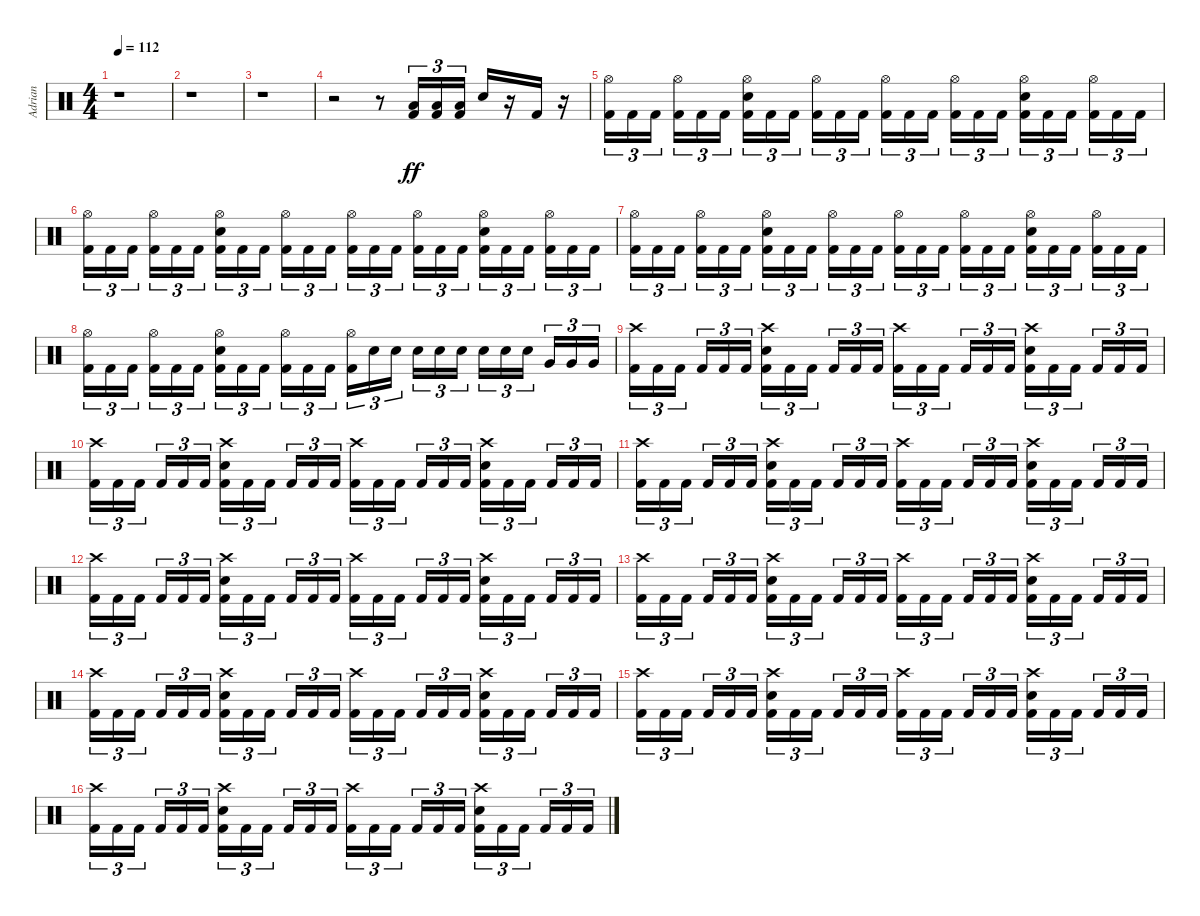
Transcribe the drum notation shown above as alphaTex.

\track ("Adrian" "Adrian") {instrument percussion}
\staff {score}
\articulation defaults
\ts (4 4)
\tempo 112
\clef neutral
\ks c
r.1{dy ff} |
r.1 |
r.1 |
r.2 r.8 ("Low Floor Tom (hit)" "Kick (hit) 2").16{tu (3 2)} ("Low Floor Tom (hit)" "Kick (hit) 2").16{tu (3 2)} ("Low Floor Tom (hit)" "Kick (hit) 2").16{tu (3 2)} "Electric Snare (hit)".16 r.16 "Kick (hit) 2".16 r.16 |
("Hi-Hat (open)" "Kick (hit) 2").16{tu (3 2)} "Kick (hit) 2".16{tu (3 2)} "Kick (hit) 2".16{tu (3 2) beam splitsecondary} ("Hi-Hat (open)" "Kick (hit) 2").16{tu (3 2)} "Kick (hit) 2".16{tu (3 2)} "Kick (hit) 2".16{tu (3 2)} ("Hi-Hat (open)" "Electric Snare (hit)" "Kick (hit) 2").16{tu (3 2)} "Kick (hit) 2".16{tu (3 2)} "Kick (hit) 2".16{tu (3 2) beam splitsecondary} ("Hi-Hat (open)" "Kick (hit) 2").16{tu (3 2)} "Kick (hit) 2".16{tu (3 2)} "Kick (hit) 2".16{tu (3 2)} ("Hi-Hat (open)" "Kick (hit) 2").16{tu (3 2)} "Kick (hit) 2".16{tu (3 2)} "Kick (hit) 2".16{tu (3 2) beam splitsecondary} ("Hi-Hat (open)" "Kick (hit) 2").16{tu (3 2)} "Kick (hit) 2".16{tu (3 2)} "Kick (hit) 2".16{tu (3 2)} ("Hi-Hat (open)" "Electric Snare (hit)" "Kick (hit) 2").16{tu (3 2)} "Kick (hit) 2".16{tu (3 2)} "Kick (hit) 2".16{tu (3 2) beam splitsecondary} ("Hi-Hat (open)" "Kick (hit) 2").16{tu (3 2)} "Kick (hit) 2".16{tu (3 2)} "Kick (hit) 2".16{tu (3 2)} |
("Hi-Hat (open)" "Kick (hit) 2").16{tu (3 2)} "Kick (hit) 2".16{tu (3 2)} "Kick (hit) 2".16{tu (3 2) beam splitsecondary} ("Hi-Hat (open)" "Kick (hit) 2").16{tu (3 2)} "Kick (hit) 2".16{tu (3 2)} "Kick (hit) 2".16{tu (3 2)} ("Hi-Hat (open)" "Electric Snare (hit)" "Kick (hit) 2").16{tu (3 2)} "Kick (hit) 2".16{tu (3 2)} "Kick (hit) 2".16{tu (3 2) beam splitsecondary} ("Hi-Hat (open)" "Kick (hit) 2").16{tu (3 2)} "Kick (hit) 2".16{tu (3 2)} "Kick (hit) 2".16{tu (3 2)} ("Hi-Hat (open)" "Kick (hit) 2").16{tu (3 2)} "Kick (hit) 2".16{tu (3 2)} "Kick (hit) 2".16{tu (3 2) beam splitsecondary} ("Hi-Hat (open)" "Kick (hit) 2").16{tu (3 2)} "Kick (hit) 2".16{tu (3 2)} "Kick (hit) 2".16{tu (3 2)} ("Hi-Hat (open)" "Electric Snare (hit)" "Kick (hit) 2").16{tu (3 2)} "Kick (hit) 2".16{tu (3 2)} "Kick (hit) 2".16{tu (3 2) beam splitsecondary} ("Hi-Hat (open)" "Kick (hit) 2").16{tu (3 2)} "Kick (hit) 2".16{tu (3 2)} "Kick (hit) 2".16{tu (3 2)} |
("Hi-Hat (open)" "Kick (hit) 2").16{tu (3 2)} "Kick (hit) 2".16{tu (3 2)} "Kick (hit) 2".16{tu (3 2) beam splitsecondary} ("Hi-Hat (open)" "Kick (hit) 2").16{tu (3 2)} "Kick (hit) 2".16{tu (3 2)} "Kick (hit) 2".16{tu (3 2)} ("Hi-Hat (open)" "Electric Snare (hit)" "Kick (hit) 2").16{tu (3 2)} "Kick (hit) 2".16{tu (3 2)} "Kick (hit) 2".16{tu (3 2) beam splitsecondary} ("Hi-Hat (open)" "Kick (hit) 2").16{tu (3 2)} "Kick (hit) 2".16{tu (3 2)} "Kick (hit) 2".16{tu (3 2)} ("Hi-Hat (open)" "Kick (hit) 2").16{tu (3 2)} "Kick (hit) 2".16{tu (3 2)} "Kick (hit) 2".16{tu (3 2) beam splitsecondary} ("Hi-Hat (open)" "Kick (hit) 2").16{tu (3 2)} "Kick (hit) 2".16{tu (3 2)} "Kick (hit) 2".16{tu (3 2)} ("Hi-Hat (open)" "Electric Snare (hit)" "Kick (hit) 2").16{tu (3 2)} "Kick (hit) 2".16{tu (3 2)} "Kick (hit) 2".16{tu (3 2) beam splitsecondary} ("Hi-Hat (open)" "Kick (hit) 2").16{tu (3 2)} "Kick (hit) 2".16{tu (3 2)} "Kick (hit) 2".16{tu (3 2)} |
("Hi-Hat (open)" "Kick (hit) 2").16{tu (3 2)} "Kick (hit) 2".16{tu (3 2)} "Kick (hit) 2".16{tu (3 2) beam splitsecondary} ("Hi-Hat (open)" "Kick (hit) 2").16{tu (3 2)} "Kick (hit) 2".16{tu (3 2)} "Kick (hit) 2".16{tu (3 2)} ("Hi-Hat (open)" "Electric Snare (hit)" "Kick (hit) 2").16{tu (3 2)} "Kick (hit) 2".16{tu (3 2)} "Kick (hit) 2".16{tu (3 2) beam splitsecondary} ("Hi-Hat (open)" "Kick (hit) 2").16{tu (3 2)} "Kick (hit) 2".16{tu (3 2)} "Kick (hit) 2".16{tu (3 2)} ("Hi-Hat (open)" "Kick (hit) 2").16{tu (3 2)} "Electric Snare (hit)".16{tu (3 2)} "Electric Snare (hit)".16{tu (3 2) beam splitsecondary} "Electric Snare (hit)".16{tu (3 2)} "Electric Snare (hit)".16{tu (3 2)} "Electric Snare (hit)".16{tu (3 2)} "Electric Snare (hit)".16{tu (3 2)} "Electric Snare (hit)".16{tu (3 2)} "Electric Snare (hit)".16{tu (3 2) beam splitsecondary} "Very Low Tom (hit)".16{tu (3 2)} "Very Low Tom (hit)".16{tu (3 2)} "Very Low Tom (hit)".16{tu (3 2)} |
("Crash high (hit)" "Kick (hit) 2").16{tu (3 2)} "Kick (hit) 2".16{tu (3 2)} "Kick (hit) 2".16{tu (3 2) beam splitsecondary} "Kick (hit) 2".16{tu (3 2)} "Kick (hit) 2".16{tu (3 2)} "Kick (hit) 2".16{tu (3 2)} ("Crash high (hit)" "Electric Snare (hit)" "Kick (hit) 2").16{tu (3 2)} "Kick (hit) 2".16{tu (3 2)} "Kick (hit) 2".16{tu (3 2) beam splitsecondary} "Kick (hit) 2".16{tu (3 2)} "Kick (hit) 2".16{tu (3 2)} "Kick (hit) 2".16{tu (3 2)} ("Crash high (hit)" "Kick (hit) 2").16{tu (3 2)} "Kick (hit) 2".16{tu (3 2)} "Kick (hit) 2".16{tu (3 2) beam splitsecondary} "Kick (hit) 2".16{tu (3 2)} "Kick (hit) 2".16{tu (3 2)} "Kick (hit) 2".16{tu (3 2)} ("Crash high (hit)" "Electric Snare (hit)" "Kick (hit) 2").16{tu (3 2)} "Kick (hit) 2".16{tu (3 2)} "Kick (hit) 2".16{tu (3 2) beam splitsecondary} "Kick (hit) 2".16{tu (3 2)} "Kick (hit) 2".16{tu (3 2)} "Kick (hit) 2".16{tu (3 2)} |
("Crash high (hit)" "Kick (hit) 2").16{tu (3 2)} "Kick (hit) 2".16{tu (3 2)} "Kick (hit) 2".16{tu (3 2) beam splitsecondary} "Kick (hit) 2".16{tu (3 2)} "Kick (hit) 2".16{tu (3 2)} "Kick (hit) 2".16{tu (3 2)} ("Crash high (hit)" "Electric Snare (hit)" "Kick (hit) 2").16{tu (3 2)} "Kick (hit) 2".16{tu (3 2)} "Kick (hit) 2".16{tu (3 2) beam splitsecondary} "Kick (hit) 2".16{tu (3 2)} "Kick (hit) 2".16{tu (3 2)} "Kick (hit) 2".16{tu (3 2)} ("Crash high (hit)" "Kick (hit) 2").16{tu (3 2)} "Kick (hit) 2".16{tu (3 2)} "Kick (hit) 2".16{tu (3 2) beam splitsecondary} "Kick (hit) 2".16{tu (3 2)} "Kick (hit) 2".16{tu (3 2)} "Kick (hit) 2".16{tu (3 2)} ("Crash high (hit)" "Electric Snare (hit)" "Kick (hit) 2").16{tu (3 2)} "Kick (hit) 2".16{tu (3 2)} "Kick (hit) 2".16{tu (3 2) beam splitsecondary} "Kick (hit) 2".16{tu (3 2)} "Kick (hit) 2".16{tu (3 2)} "Kick (hit) 2".16{tu (3 2)} |
("Crash high (hit)" "Kick (hit) 2").16{tu (3 2)} "Kick (hit) 2".16{tu (3 2)} "Kick (hit) 2".16{tu (3 2) beam splitsecondary} "Kick (hit) 2".16{tu (3 2)} "Kick (hit) 2".16{tu (3 2)} "Kick (hit) 2".16{tu (3 2)} ("Crash high (hit)" "Electric Snare (hit)" "Kick (hit) 2").16{tu (3 2)} "Kick (hit) 2".16{tu (3 2)} "Kick (hit) 2".16{tu (3 2) beam splitsecondary} "Kick (hit) 2".16{tu (3 2)} "Kick (hit) 2".16{tu (3 2)} "Kick (hit) 2".16{tu (3 2)} ("Crash high (hit)" "Kick (hit) 2").16{tu (3 2)} "Kick (hit) 2".16{tu (3 2)} "Kick (hit) 2".16{tu (3 2) beam splitsecondary} "Kick (hit) 2".16{tu (3 2)} "Kick (hit) 2".16{tu (3 2)} "Kick (hit) 2".16{tu (3 2)} ("Crash high (hit)" "Electric Snare (hit)" "Kick (hit) 2").16{tu (3 2)} "Kick (hit) 2".16{tu (3 2)} "Kick (hit) 2".16{tu (3 2) beam splitsecondary} "Kick (hit) 2".16{tu (3 2)} "Kick (hit) 2".16{tu (3 2)} "Kick (hit) 2".16{tu (3 2)} |
("Crash high (hit)" "Kick (hit) 2").16{tu (3 2)} "Kick (hit) 2".16{tu (3 2)} "Kick (hit) 2".16{tu (3 2) beam splitsecondary} "Kick (hit) 2".16{tu (3 2)} "Kick (hit) 2".16{tu (3 2)} "Kick (hit) 2".16{tu (3 2)} ("Crash high (hit)" "Electric Snare (hit)" "Kick (hit) 2").16{tu (3 2)} "Kick (hit) 2".16{tu (3 2)} "Kick (hit) 2".16{tu (3 2) beam splitsecondary} "Kick (hit) 2".16{tu (3 2)} "Kick (hit) 2".16{tu (3 2)} "Kick (hit) 2".16{tu (3 2)} ("Crash high (hit)" "Kick (hit) 2").16{tu (3 2)} "Kick (hit) 2".16{tu (3 2)} "Kick (hit) 2".16{tu (3 2) beam splitsecondary} "Kick (hit) 2".16{tu (3 2)} "Kick (hit) 2".16{tu (3 2)} "Kick (hit) 2".16{tu (3 2)} ("Crash high (hit)" "Electric Snare (hit)" "Kick (hit) 2").16{tu (3 2)} "Kick (hit) 2".16{tu (3 2)} "Kick (hit) 2".16{tu (3 2) beam splitsecondary} "Kick (hit) 2".16{tu (3 2)} "Kick (hit) 2".16{tu (3 2)} "Kick (hit) 2".16{tu (3 2)} |
("Crash high (hit)" "Kick (hit) 2").16{tu (3 2)} "Kick (hit) 2".16{tu (3 2)} "Kick (hit) 2".16{tu (3 2) beam splitsecondary} "Kick (hit) 2".16{tu (3 2)} "Kick (hit) 2".16{tu (3 2)} "Kick (hit) 2".16{tu (3 2)} ("Crash high (hit)" "Electric Snare (hit)" "Kick (hit) 2").16{tu (3 2)} "Kick (hit) 2".16{tu (3 2)} "Kick (hit) 2".16{tu (3 2) beam splitsecondary} "Kick (hit) 2".16{tu (3 2)} "Kick (hit) 2".16{tu (3 2)} "Kick (hit) 2".16{tu (3 2)} ("Crash high (hit)" "Kick (hit) 2").16{tu (3 2)} "Kick (hit) 2".16{tu (3 2)} "Kick (hit) 2".16{tu (3 2) beam splitsecondary} "Kick (hit) 2".16{tu (3 2)} "Kick (hit) 2".16{tu (3 2)} "Kick (hit) 2".16{tu (3 2)} ("Crash high (hit)" "Electric Snare (hit)" "Kick (hit) 2").16{tu (3 2)} "Kick (hit) 2".16{tu (3 2)} "Kick (hit) 2".16{tu (3 2) beam splitsecondary} "Kick (hit) 2".16{tu (3 2)} "Kick (hit) 2".16{tu (3 2)} "Kick (hit) 2".16{tu (3 2)} |
("Crash high (hit)" "Kick (hit) 2").16{tu (3 2)} "Kick (hit) 2".16{tu (3 2)} "Kick (hit) 2".16{tu (3 2) beam splitsecondary} "Kick (hit) 2".16{tu (3 2)} "Kick (hit) 2".16{tu (3 2)} "Kick (hit) 2".16{tu (3 2)} ("Crash high (hit)" "Electric Snare (hit)" "Kick (hit) 2").16{tu (3 2)} "Kick (hit) 2".16{tu (3 2)} "Kick (hit) 2".16{tu (3 2) beam splitsecondary} "Kick (hit) 2".16{tu (3 2)} "Kick (hit) 2".16{tu (3 2)} "Kick (hit) 2".16{tu (3 2)} ("Crash high (hit)" "Kick (hit) 2").16{tu (3 2)} "Kick (hit) 2".16{tu (3 2)} "Kick (hit) 2".16{tu (3 2) beam splitsecondary} "Kick (hit) 2".16{tu (3 2)} "Kick (hit) 2".16{tu (3 2)} "Kick (hit) 2".16{tu (3 2)} ("Crash high (hit)" "Electric Snare (hit)" "Kick (hit) 2").16{tu (3 2)} "Kick (hit) 2".16{tu (3 2)} "Kick (hit) 2".16{tu (3 2) beam splitsecondary} "Kick (hit) 2".16{tu (3 2)} "Kick (hit) 2".16{tu (3 2)} "Kick (hit) 2".16{tu (3 2)} |
("Crash high (hit)" "Kick (hit) 2").16{tu (3 2)} "Kick (hit) 2".16{tu (3 2)} "Kick (hit) 2".16{tu (3 2) beam splitsecondary} "Kick (hit) 2".16{tu (3 2)} "Kick (hit) 2".16{tu (3 2)} "Kick (hit) 2".16{tu (3 2)} ("Crash high (hit)" "Electric Snare (hit)" "Kick (hit) 2").16{tu (3 2)} "Kick (hit) 2".16{tu (3 2)} "Kick (hit) 2".16{tu (3 2) beam splitsecondary} "Kick (hit) 2".16{tu (3 2)} "Kick (hit) 2".16{tu (3 2)} "Kick (hit) 2".16{tu (3 2)} ("Crash high (hit)" "Kick (hit) 2").16{tu (3 2)} "Kick (hit) 2".16{tu (3 2)} "Kick (hit) 2".16{tu (3 2) beam splitsecondary} "Kick (hit) 2".16{tu (3 2)} "Kick (hit) 2".16{tu (3 2)} "Kick (hit) 2".16{tu (3 2)} ("Crash high (hit)" "Electric Snare (hit)" "Kick (hit) 2").16{tu (3 2)} "Kick (hit) 2".16{tu (3 2)} "Kick (hit) 2".16{tu (3 2) beam splitsecondary} "Kick (hit) 2".16{tu (3 2)} "Kick (hit) 2".16{tu (3 2)} "Kick (hit) 2".16{tu (3 2)} |
("Crash high (hit)" "Kick (hit) 2").16{tu (3 2)} "Kick (hit) 2".16{tu (3 2)} "Kick (hit) 2".16{tu (3 2) beam splitsecondary} "Kick (hit) 2".16{tu (3 2)} "Kick (hit) 2".16{tu (3 2)} "Kick (hit) 2".16{tu (3 2)} ("Crash high (hit)" "Electric Snare (hit)" "Kick (hit) 2").16{tu (3 2)} "Kick (hit) 2".16{tu (3 2)} "Kick (hit) 2".16{tu (3 2) beam splitsecondary} "Kick (hit) 2".16{tu (3 2)} "Kick (hit) 2".16{tu (3 2)} "Kick (hit) 2".16{tu (3 2)} ("Crash high (hit)" "Kick (hit) 2").16{tu (3 2)} "Kick (hit) 2".16{tu (3 2)} "Kick (hit) 2".16{tu (3 2) beam splitsecondary} "Kick (hit) 2".16{tu (3 2)} "Kick (hit) 2".16{tu (3 2)} "Kick (hit) 2".16{tu (3 2)} ("Crash high (hit)" "Electric Snare (hit)" "Kick (hit) 2").16{tu (3 2)} "Kick (hit) 2".16{tu (3 2)} "Kick (hit) 2".16{tu (3 2) beam splitsecondary} "Kick (hit) 2".16{tu (3 2)} "Kick (hit) 2".16{tu (3 2)} "Kick (hit) 2".16{tu (3 2)}
